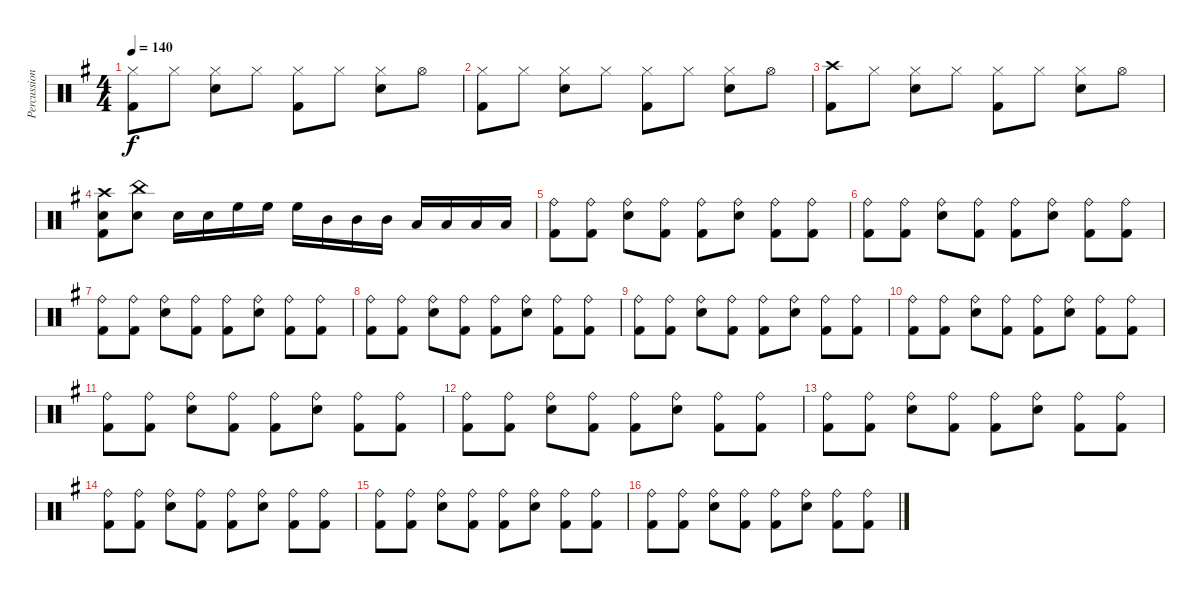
\track ("Percussions" "Percussion") {instrument percussion}
\staff {score}
\articulation defaults
\ts (4 4)
\tempo 140
\clef neutral
\ks g
("Hi-Hat (closed)" "Kick (hit) 2").8{dy f} "Hi-Hat (closed)".8 ("Hi-Hat (closed)" "Snare (hit) 2").8 "Hi-Hat (closed)".8 ("Hi-Hat (closed)" "Kick (hit) 2").8 "Hi-Hat (closed)".8 ("Hi-Hat (closed)" "Snare (hit) 2").8 "Hi-Hat (open)".8 |
("Hi-Hat (closed)" "Kick (hit) 2").8 "Hi-Hat (closed)".8 ("Hi-Hat (closed)" "Snare (hit) 2").8 "Hi-Hat (closed)".8 ("Hi-Hat (closed)" "Kick (hit) 2").8 "Hi-Hat (closed)".8 ("Hi-Hat (closed)" "Snare (hit) 2").8 "Hi-Hat (open)".8 |
("Crash high (hit)" "Kick (hit) 2").8 "Hi-Hat (closed)".8 ("Hi-Hat (closed)" "Snare (hit) 2").8 "Hi-Hat (closed)".8 ("Hi-Hat (closed)" "Kick (hit) 2").8 "Hi-Hat (closed)".8 ("Hi-Hat (closed)" "Snare (hit) 2").8 "Hi-Hat (open)".8 |
("Crash high (hit)" "Snare (hit) 2" "Kick (hit) 2").8 ("China (hit)" "Snare (hit) 2").8 "Snare (hit) 2".16 "Snare (hit) 2".16 "High Floor Tom (hit)".16 "High Floor Tom (hit)".16 "High Floor Tom (hit)".16 "Mid Tom (hit)".16 "Mid Tom (hit)".16 "Mid Tom (hit)".16 "Low Tom (hit)".16 "Low Tom (hit)".16 "Low Tom (hit)".16 "Low Floor Tom (hit)".16 |
("Ride (bell)" "Kick (hit) 2").8 ("Ride (bell)" "Kick (hit) 2").8 ("Ride (bell)" "Snare (hit) 2").8 ("Ride (bell)" "Kick (hit) 2").8 ("Ride (bell)" "Kick (hit) 2").8 ("Ride (bell)" "Snare (hit) 2").8 ("Ride (bell)" "Kick (hit) 2").8 ("Ride (bell)" "Kick (hit) 2").8 |
("Ride (bell)" "Kick (hit) 2").8 ("Ride (bell)" "Kick (hit) 2").8 ("Ride (bell)" "Snare (hit) 2").8 ("Ride (bell)" "Kick (hit) 2").8 ("Ride (bell)" "Kick (hit) 2").8 ("Ride (bell)" "Snare (hit) 2").8 ("Ride (bell)" "Kick (hit) 2").8 ("Ride (bell)" "Kick (hit) 2").8 |
("Ride (bell)" "Kick (hit) 2").8 ("Ride (bell)" "Kick (hit) 2").8 ("Ride (bell)" "Snare (hit) 2").8 ("Ride (bell)" "Kick (hit) 2").8 ("Ride (bell)" "Kick (hit) 2").8 ("Ride (bell)" "Snare (hit) 2").8 ("Ride (bell)" "Kick (hit) 2").8 ("Ride (bell)" "Kick (hit) 2").8 |
("Ride (bell)" "Kick (hit) 2").8 ("Ride (bell)" "Kick (hit) 2").8 ("Ride (bell)" "Snare (hit) 2").8 ("Ride (bell)" "Kick (hit) 2").8 ("Ride (bell)" "Kick (hit) 2").8 ("Ride (bell)" "Snare (hit) 2").8 ("Ride (bell)" "Kick (hit) 2").8 ("Ride (bell)" "Kick (hit) 2").8 |
("Ride (bell)" "Kick (hit) 2").8 ("Ride (bell)" "Kick (hit) 2").8 ("Ride (bell)" "Snare (hit) 2").8 ("Ride (bell)" "Kick (hit) 2").8 ("Ride (bell)" "Kick (hit) 2").8 ("Ride (bell)" "Snare (hit) 2").8 ("Ride (bell)" "Kick (hit) 2").8 ("Ride (bell)" "Kick (hit) 2").8 |
("Ride (bell)" "Kick (hit) 2").8 ("Ride (bell)" "Kick (hit) 2").8 ("Ride (bell)" "Snare (hit) 2").8 ("Ride (bell)" "Kick (hit) 2").8 ("Ride (bell)" "Kick (hit) 2").8 ("Ride (bell)" "Snare (hit) 2").8 ("Ride (bell)" "Kick (hit) 2").8 ("Ride (bell)" "Kick (hit) 2").8 |
("Ride (bell)" "Kick (hit) 2").8 ("Ride (bell)" "Kick (hit) 2").8 ("Ride (bell)" "Snare (hit) 2").8 ("Ride (bell)" "Kick (hit) 2").8 ("Ride (bell)" "Kick (hit) 2").8 ("Ride (bell)" "Snare (hit) 2").8 ("Ride (bell)" "Kick (hit) 2").8 ("Ride (bell)" "Kick (hit) 2").8 |
("Ride (bell)" "Kick (hit) 2").8 ("Ride (bell)" "Kick (hit) 2").8 ("Ride (bell)" "Snare (hit) 2").8 ("Ride (bell)" "Kick (hit) 2").8 ("Ride (bell)" "Kick (hit) 2").8 ("Ride (bell)" "Snare (hit) 2").8 ("Ride (bell)" "Kick (hit) 2").8 ("Ride (bell)" "Kick (hit) 2").8 |
("Ride (bell)" "Kick (hit) 2").8 ("Ride (bell)" "Kick (hit) 2").8 ("Ride (bell)" "Snare (hit) 2").8 ("Ride (bell)" "Kick (hit) 2").8 ("Ride (bell)" "Kick (hit) 2").8 ("Ride (bell)" "Snare (hit) 2").8 ("Ride (bell)" "Kick (hit) 2").8 ("Ride (bell)" "Kick (hit) 2").8 |
("Ride (bell)" "Kick (hit) 2").8 ("Ride (bell)" "Kick (hit) 2").8 ("Ride (bell)" "Snare (hit) 2").8 ("Ride (bell)" "Kick (hit) 2").8 ("Ride (bell)" "Kick (hit) 2").8 ("Ride (bell)" "Snare (hit) 2").8 ("Ride (bell)" "Kick (hit) 2").8 ("Ride (bell)" "Kick (hit) 2").8 |
("Ride (bell)" "Kick (hit) 2").8 ("Ride (bell)" "Kick (hit) 2").8 ("Ride (bell)" "Snare (hit) 2").8 ("Ride (bell)" "Kick (hit) 2").8 ("Ride (bell)" "Kick (hit) 2").8 ("Ride (bell)" "Snare (hit) 2").8 ("Ride (bell)" "Kick (hit) 2").8 ("Ride (bell)" "Kick (hit) 2").8 |
("Ride (bell)" "Kick (hit) 2").8 ("Ride (bell)" "Kick (hit) 2").8 ("Ride (bell)" "Snare (hit) 2").8 ("Ride (bell)" "Kick (hit) 2").8 ("Ride (bell)" "Kick (hit) 2").8 ("Ride (bell)" "Snare (hit) 2").8 ("Ride (bell)" "Kick (hit) 2").8 ("Ride (bell)" "Kick (hit) 2").8
